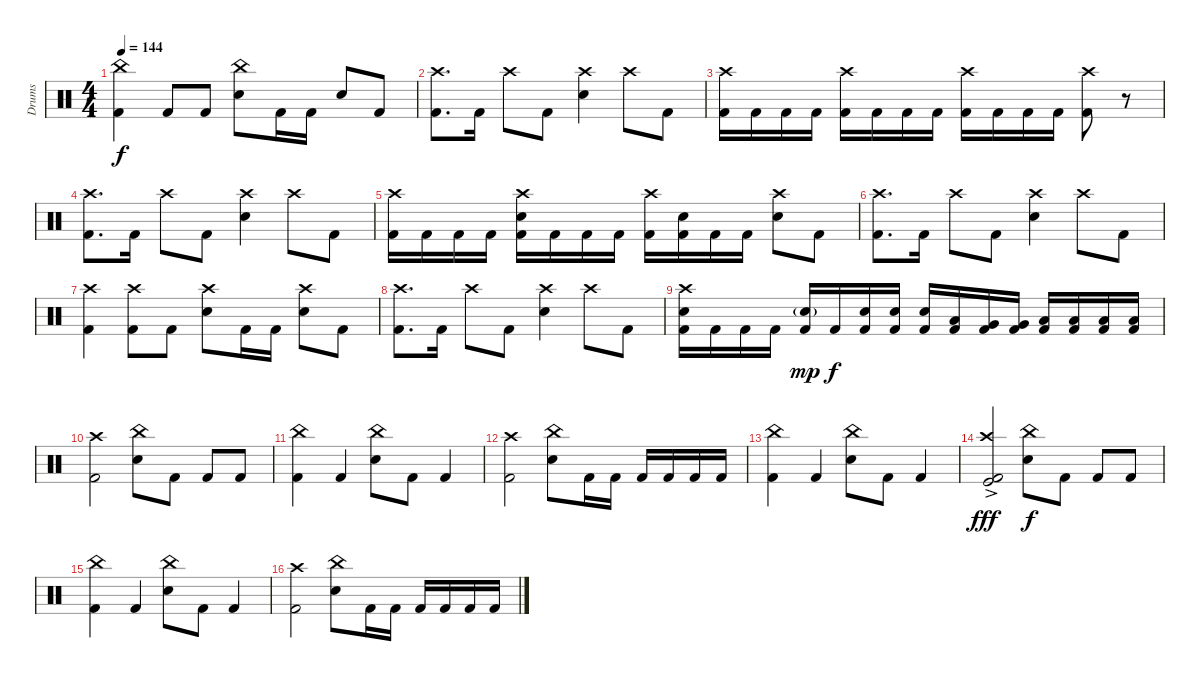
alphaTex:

\track ("Drums" "Drums") {instrument percussion}
\staff {score}
\articulation defaults
\ts (4 4)
\tempo 144
\clef neutral
\ks c
("Kick (hit) 2" "China (hit)").4{dy f} "Kick (hit) 2".8 "Kick (hit) 2".8 ("China (hit)" "Snare (hit) 2").8 "Kick (hit) 2".16 "Kick (hit) 2".16 "Snare (hit) 2".8 "Kick (hit) 2".8 |
("Crash high (hit)" "Kick (hit) 2").8{d} "Kick (hit) 2".16 "Crash high (hit)".8 "Kick (hit) 2".8 ("Crash high (hit)" "Snare (hit) 2").4 "Crash high (hit)".8 "Kick (hit) 2".8 |
("Crash high (hit)" "Kick (hit) 2").16 "Kick (hit) 2".16 "Kick (hit) 2".16 "Kick (hit) 2".16 ("Crash high (hit)" "Kick (hit) 2").16 "Kick (hit) 2".16 "Kick (hit) 2".16 "Kick (hit) 2".16 ("Crash high (hit)" "Kick (hit) 2").16 "Kick (hit) 2".16 "Kick (hit) 2".16 "Kick (hit) 2".16 ("Crash high (hit)" "Kick (hit) 2").8 r.8{volume 0} |
("Crash high (hit)" "Kick (hit) 2").8{d volume 16} "Kick (hit) 2".16 "Crash high (hit)".8 "Kick (hit) 2".8 ("Crash high (hit)" "Snare (hit) 2").4 "Crash high (hit)".8 "Kick (hit) 2".8 |
("Crash high (hit)" "Kick (hit) 2").16 "Kick (hit) 2".16 "Kick (hit) 2".16 "Kick (hit) 2".16 ("Snare (hit) 2" "Crash high (hit)" "Kick (hit) 2").16 "Kick (hit) 2".16 "Kick (hit) 2".16 "Kick (hit) 2".16 ("Crash high (hit)" "Kick (hit) 2").16 ("Snare (hit) 2" "Kick (hit) 2").16 "Kick (hit) 2".16 "Kick (hit) 2".16 ("Snare (hit) 2" "Crash high (hit)").8 "Kick (hit) 2".8 |
("Crash high (hit)" "Kick (hit) 2").8{d} "Kick (hit) 2".16 "Crash high (hit)".8 "Kick (hit) 2".8 ("Crash high (hit)" "Snare (hit) 2").4 "Crash high (hit)".8 "Kick (hit) 2".8 |
("Crash high (hit)" "Kick (hit) 2").4 ("Crash high (hit)" "Kick (hit) 2").8 "Kick (hit) 2".8 ("Crash high (hit)" "Snare (hit) 2").8 "Kick (hit) 2".16 "Kick (hit) 2".16 ("Crash high (hit)" "Snare (hit) 2").8 "Kick (hit) 2".8 |
("Crash high (hit)" "Kick (hit) 2").8{d volume 16} "Kick (hit) 2".16 "Crash high (hit)".8 "Kick (hit) 2".8 ("Crash high (hit)" "Snare (hit) 2").4 "Crash high (hit)".8 "Kick (hit) 2".8 |
("Crash high (hit)" "Snare (hit) 2" "Kick (hit) 2").16 "Kick (hit) 2".16 "Kick (hit) 2".16 "Kick (hit) 2".16 ("Snare (hit) 2"{g} "Kick (hit) 2").16{dy mp} "Kick (hit) 2".16{dy f} ("Snare (hit) 2" "Kick (hit) 2").16 ("Snare (hit) 2" "Kick (hit) 2").16 ("Snare (hit) 2" "Kick (hit) 2").16 ("Low Tom (hit)" "Kick (hit) 2").16 ("Very Low Tom (hit)" "Kick (hit) 2").16 ("Very Low Tom (hit)" "Kick (hit) 2").16 ("Low Floor Tom (hit)" "Kick (hit) 2").16 ("Low Floor Tom (hit)" "Kick (hit) 2").16 ("Low Floor Tom (hit)" "Kick (hit) 2").16 ("Low Floor Tom (hit)" "Kick (hit) 2").16 |
("Crash high (hit)" "Kick (hit) 2").2 ("China (hit)" "Snare (hit) 2").8 "Kick (hit) 2".8 "Kick (hit) 2".8 "Kick (hit) 2".8 |
("Kick (hit) 2" "China (hit)").4 "Kick (hit) 2".4 ("China (hit)" "Snare (hit) 2").8 "Kick (hit) 2".8 "Kick (hit) 2".4 |
("Crash high (hit)" "Kick (hit) 2").2 ("China (hit)" "Snare (hit) 2").8 "Kick (hit) 2".16 "Kick (hit) 2".16 "Kick (hit) 2".16 "Kick (hit) 2".16 "Kick (hit) 2".16 "Kick (hit) 2".16 |
("Kick (hit) 2" "China (hit)").4 "Kick (hit) 2".4 ("China (hit)" "Snare (hit) 2").8 "Kick (hit) 2".8 "Kick (hit) 2".4 |
("Kick (hit)"{ac} "Crash high (hit)" "Kick (hit) 2").2{dy fff} ("China (hit)" "Snare (hit) 2").8{dy f} "Kick (hit) 2".8 "Kick (hit) 2".8 "Kick (hit) 2".8 |
("Kick (hit) 2" "China (hit)").4 "Kick (hit) 2".4 ("China (hit)" "Snare (hit) 2").8 "Kick (hit) 2".8 "Kick (hit) 2".4 |
("Crash high (hit)" "Kick (hit) 2").2 ("China (hit)" "Snare (hit) 2").8 "Kick (hit) 2".16 "Kick (hit) 2".16 "Kick (hit) 2".16 "Kick (hit) 2".16 "Kick (hit) 2".16 "Kick (hit) 2".16
